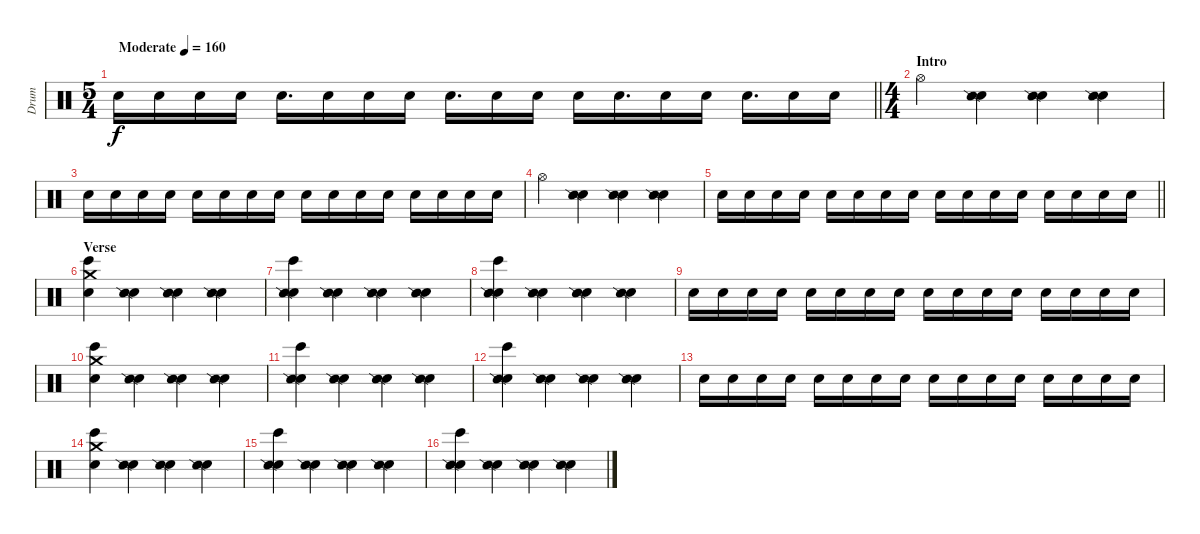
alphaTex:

\track ("Drum" "Drum") {instrument percussion}
\staff {score}
\articulation defaults
\ts (5 4)
\tempo (160 "Moderate")
\clef neutral
\barLineRight lightlight
\ks c "Electric Snare (hit)".16{dy f} "Electric Snare (hit)".16 "Electric Snare (hit)".16 "Electric Snare (hit)".16 "Electric Snare (hit)".16{d} "Electric Snare (hit)".16 "Electric Snare (hit)".16 "Electric Snare (hit)".16 "Electric Snare (hit)".16{d} "Electric Snare (hit)".16 "Electric Snare (hit)".16 "Electric Snare (hit)".16 "Electric Snare (hit)".16{d} "Electric Snare (hit)".16 "Electric Snare (hit)".16 "Electric Snare (hit)".16{d} "Electric Snare (hit)".16 "Electric Snare (hit)".16
|
\ts (4 4)
\section ("" "Intro")
"Hi-Hat (open)".4 ("Electric Snare (hit)" "Snare (side stick) 2").4 ("Electric Snare (hit)" "Snare (side stick) 2").4 ("Electric Snare (hit)" "Snare (side stick) 2").4 |
"Electric Snare (hit)".16 "Electric Snare (hit)".16 "Electric Snare (hit)".16 "Electric Snare (hit)".16 "Electric Snare (hit)".16 "Electric Snare (hit)".16 "Electric Snare (hit)".16 "Electric Snare (hit)".16 "Electric Snare (hit)".16 "Electric Snare (hit)".16 "Electric Snare (hit)".16 "Electric Snare (hit)".16 "Electric Snare (hit)".16 "Electric Snare (hit)".16 "Electric Snare (hit)".16 "Electric Snare (hit)".16 |
"Hi-Hat (open)".4 ("Electric Snare (hit)" "Snare (side stick) 2").4 ("Electric Snare (hit)" "Snare (side stick) 2").4 ("Electric Snare (hit)" "Snare (side stick) 2").4 |
\barLineRight lightlight "Electric Snare (hit)".16 "Electric Snare (hit)".16 "Electric Snare (hit)".16 "Electric Snare (hit)".16 "Electric Snare (hit)".16 "Electric Snare (hit)".16 "Electric Snare (hit)".16 "Electric Snare (hit)".16 "Electric Snare (hit)".16 "Electric Snare (hit)".16 "Electric Snare (hit)".16 "Electric Snare (hit)".16 "Electric Snare (hit)".16 "Electric Snare (hit)".16 "Electric Snare (hit)".16 "Electric Snare (hit)".16
|
\section ("" "Verse")
("Electric Snare (hit)" "Bongo High (hit)" "Crash medium (hit)").4 ("Electric Snare (hit)" "Snare (side stick) 2").4 ("Electric Snare (hit)" "Snare (side stick) 2").4 ("Electric Snare (hit)" "Snare (side stick) 2").4 |
("Electric Snare (hit)" "Bongo High (hit)" "Snare (side stick) 2").4 ("Electric Snare (hit)" "Snare (side stick) 2").4 ("Electric Snare (hit)" "Snare (side stick) 2").4 ("Electric Snare (hit)" "Snare (side stick) 2").4 |
("Electric Snare (hit)" "Bongo High (hit)" "Snare (side stick) 2").4 ("Electric Snare (hit)" "Snare (side stick) 2").4 ("Electric Snare (hit)" "Snare (side stick) 2").4 ("Electric Snare (hit)" "Snare (side stick) 2").4 |
"Electric Snare (hit)".16 "Electric Snare (hit)".16 "Electric Snare (hit)".16 "Electric Snare (hit)".16 "Electric Snare (hit)".16 "Electric Snare (hit)".16 "Electric Snare (hit)".16 "Electric Snare (hit)".16 "Electric Snare (hit)".16 "Electric Snare (hit)".16 "Electric Snare (hit)".16 "Electric Snare (hit)".16 "Electric Snare (hit)".16 "Electric Snare (hit)".16 "Electric Snare (hit)".16 "Electric Snare (hit)".16 |
("Electric Snare (hit)" "Bongo High (hit)" "Crash medium (hit)").4 ("Electric Snare (hit)" "Snare (side stick) 2").4 ("Electric Snare (hit)" "Snare (side stick) 2").4 ("Electric Snare (hit)" "Snare (side stick) 2").4 |
("Electric Snare (hit)" "Bongo High (hit)" "Snare (side stick) 2").4 ("Electric Snare (hit)" "Snare (side stick) 2").4 ("Electric Snare (hit)" "Snare (side stick) 2").4 ("Electric Snare (hit)" "Snare (side stick) 2").4 |
("Electric Snare (hit)" "Bongo High (hit)" "Snare (side stick) 2").4 ("Electric Snare (hit)" "Snare (side stick) 2").4 ("Electric Snare (hit)" "Snare (side stick) 2").4 ("Electric Snare (hit)" "Snare (side stick) 2").4 |
"Electric Snare (hit)".16 "Electric Snare (hit)".16 "Electric Snare (hit)".16 "Electric Snare (hit)".16 "Electric Snare (hit)".16 "Electric Snare (hit)".16 "Electric Snare (hit)".16 "Electric Snare (hit)".16 "Electric Snare (hit)".16 "Electric Snare (hit)".16 "Electric Snare (hit)".16 "Electric Snare (hit)".16 "Electric Snare (hit)".16 "Electric Snare (hit)".16 "Electric Snare (hit)".16 "Electric Snare (hit)".16 |
("Electric Snare (hit)" "Bongo High (hit)" "Crash medium (hit)").4 ("Electric Snare (hit)" "Snare (side stick) 2").4 ("Electric Snare (hit)" "Snare (side stick) 2").4 ("Electric Snare (hit)" "Snare (side stick) 2").4 |
("Electric Snare (hit)" "Bongo High (hit)" "Snare (side stick) 2").4 ("Electric Snare (hit)" "Snare (side stick) 2").4 ("Electric Snare (hit)" "Snare (side stick) 2").4 ("Electric Snare (hit)" "Snare (side stick) 2").4 |
("Electric Snare (hit)" "Bongo High (hit)" "Snare (side stick) 2").4 ("Electric Snare (hit)" "Snare (side stick) 2").4 ("Electric Snare (hit)" "Snare (side stick) 2").4 ("Electric Snare (hit)" "Snare (side stick) 2").4
